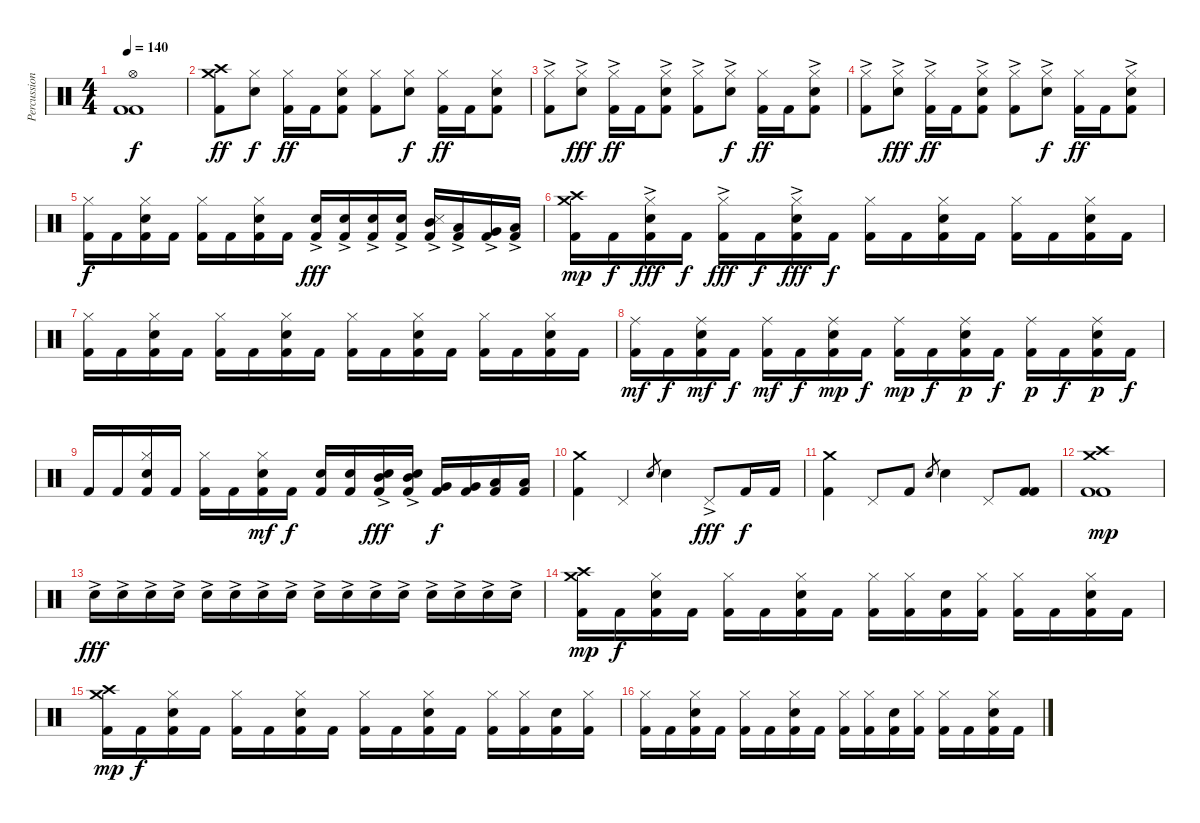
\track ("Percussion" "Percussion") {instrument percussion}
\staff {score}
\articulation defaults
\ts (4 4)
\tempo 140
\clef neutral
\ks c
("Hi-Hat (open)" "Kick (hit) 2" "Kick (hit) 2").1{dy f} |
("Crash medium (hit)" "Crash high (hit)" "Kick (hit) 2").8{dy ff} ("Hi-Hat (closed)" "Electric Snare (hit)").8{dy f} ("Hi-Hat (closed)" "Kick (hit) 2").16{dy ff} "Kick (hit) 2".16 ("Hi-Hat (closed)" "Electric Snare (hit)" "Kick (hit) 2").8 ("Hi-Hat (closed)" "Kick (hit) 2").8 ("Hi-Hat (closed)" "Electric Snare (hit)").8{dy f} ("Hi-Hat (closed)" "Kick (hit) 2").16{dy ff} "Kick (hit) 2".16 ("Hi-Hat (closed)" "Electric Snare (hit)" "Kick (hit) 2").8 |
("Hi-Hat (closed)"{ac} "Kick (hit) 2").8 ("Hi-Hat (closed)"{ac} "Electric Snare (hit)").8{dy fff} ("Hi-Hat (closed)"{ac} "Kick (hit) 2").16{dy ff} "Kick (hit) 2".16 ("Hi-Hat (closed)"{ac} "Electric Snare (hit)" "Kick (hit) 2").8 ("Hi-Hat (closed)"{ac} "Kick (hit) 2").8 ("Hi-Hat (closed)"{ac} "Electric Snare (hit)").8{dy f} ("Hi-Hat (closed)" "Kick (hit) 2").16{dy ff} "Kick (hit) 2".16 ("Hi-Hat (closed)"{ac} "Electric Snare (hit)" "Kick (hit) 2").8 |
("Hi-Hat (closed)"{ac} "Kick (hit) 2").8 ("Hi-Hat (closed)"{ac} "Electric Snare (hit)").8{dy fff} ("Hi-Hat (closed)"{ac} "Kick (hit) 2").16{dy ff} "Kick (hit) 2".16 ("Hi-Hat (closed)"{ac} "Electric Snare (hit)" "Kick (hit) 2").8 ("Hi-Hat (closed)"{ac} "Kick (hit) 2").8 ("Hi-Hat (closed)"{ac} "Electric Snare (hit)").8{dy f} ("Hi-Hat (closed)" "Kick (hit) 2").16{dy ff} "Kick (hit) 2".16 ("Hi-Hat (closed)"{ac} "Electric Snare (hit)" "Kick (hit) 2").8 |
("Hi-Hat (closed)" "Kick (hit) 2").16{dy f} "Kick (hit) 2".16 ("Hi-Hat (closed)" "Electric Snare (hit)" "Kick (hit) 2").16 "Kick (hit) 2".16 ("Hi-Hat (closed)" "Kick (hit) 2").16 "Kick (hit) 2".16 ("Hi-Hat (closed)" "Electric Snare (hit)" "Kick (hit) 2").16 "Kick (hit) 2".16 ("Electric Snare (hit)"{ac} "Kick (hit) 2").16{dy fff} ("Electric Snare (hit)"{ac} "Kick (hit) 2").16 ("Electric Snare (hit)"{ac} "Kick (hit) 2").16 ("Electric Snare (hit)"{ac} "Kick (hit) 2").16 ("Snare (side stick) 3" "Mid Tom (hit)"{ac} "Kick (hit) 2").16 ("Low Tom (hit)"{ac} "Kick (hit) 2").16 ("Very Low Tom (hit)"{ac} "Kick (hit) 2").16 ("Low Floor Tom (hit)"{ac} "Kick (hit) 2").16 |
("Crash medium (hit)" "Crash high (hit)" "Kick (hit) 2").16{dy mp} "Kick (hit) 2".16{dy f} ("Hi-Hat (closed)"{ac} "Electric Snare (hit)" "Kick (hit) 2").16{dy fff} "Kick (hit) 2".16{dy f} ("Hi-Hat (closed)"{ac} "Kick (hit) 2").16{dy fff} "Kick (hit) 2".16{dy f} ("Hi-Hat (closed)"{ac} "Electric Snare (hit)" "Kick (hit) 2").16{dy fff} "Kick (hit) 2".16{dy f} ("Hi-Hat (closed)" "Kick (hit) 2").16 "Kick (hit) 2".16 ("Hi-Hat (closed)" "Electric Snare (hit)" "Kick (hit) 2").16 "Kick (hit) 2".16 ("Hi-Hat (closed)" "Kick (hit) 2").16 "Kick (hit) 2".16 ("Hi-Hat (closed)" "Electric Snare (hit)" "Kick (hit) 2").16 "Kick (hit) 2".16 |
("Hi-Hat (closed)" "Kick (hit) 2").16 "Kick (hit) 2".16 ("Hi-Hat (closed)" "Electric Snare (hit)" "Kick (hit) 2").16 "Kick (hit) 2".16 ("Hi-Hat (closed)" "Kick (hit) 2").16 "Kick (hit) 2".16 ("Hi-Hat (closed)" "Electric Snare (hit)" "Kick (hit) 2").16 "Kick (hit) 2".16 ("Hi-Hat (closed)" "Kick (hit) 2").16 "Kick (hit) 2".16 ("Hi-Hat (closed)" "Electric Snare (hit)" "Kick (hit) 2").16 "Kick (hit) 2".16 ("Hi-Hat (closed)" "Kick (hit) 2").16 "Kick (hit) 2".16 ("Hi-Hat (closed)" "Electric Snare (hit)" "Kick (hit) 2").16 "Kick (hit) 2".16 |
("Ride (middle)" "Kick (hit) 2").16{dy mf} "Kick (hit) 2".16{dy f} ("Ride (middle)" "Electric Snare (hit)" "Kick (hit) 2").16{dy mf} "Kick (hit) 2".16{dy f} ("Ride (middle)" "Kick (hit) 2").16{dy mf} "Kick (hit) 2".16{dy f} ("Ride (middle)" "Electric Snare (hit)" "Kick (hit) 2").16{dy mp} "Kick (hit) 2".16{dy f} ("Ride (middle)" "Kick (hit) 2").16{dy mp} "Kick (hit) 2".16{dy f} ("Ride (middle)" "Electric Snare (hit)" "Kick (hit) 2").16{dy p} "Kick (hit) 2".16{dy f} ("Ride (middle)" "Kick (hit) 2").16{dy p} "Kick (hit) 2".16{dy f} ("Ride (middle)" "Electric Snare (hit)" "Kick (hit) 2").16{dy p} "Kick (hit) 2".16{dy f} |
"Kick (hit) 2".16 "Kick (hit) 2".16 ("Hi-Hat (closed)" "Electric Snare (hit)" "Kick (hit) 2").16 "Kick (hit) 2".16 ("Hi-Hat (closed)" "Kick (hit) 2").16 "Kick (hit) 2".16 ("Hi-Hat (closed)" "Electric Snare (hit)" "Kick (hit) 2").16{dy mf} "Kick (hit) 2".16{dy f} ("Electric Snare (hit)" "Kick (hit) 2").16 ("Electric Snare (hit)" "Kick (hit) 2").16 ("Mid Tom (hit)"{ac} "Electric Snare (hit)" "Kick (hit) 2").16{dy fff} ("Mid Tom (hit)"{ac} "Electric Snare (hit)" "Kick (hit) 2").16 ("Very Low Tom (hit)" "Kick (hit) 2").16{dy f} ("Very Low Tom (hit)" "Kick (hit) 2").16 ("Low Floor Tom (hit)" "Kick (hit) 2").16 ("Low Floor Tom (hit)" "Kick (hit) 2").16 |
("Crash medium (hit)" "Kick (hit) 2").4 "Pedal Hi-Hat (hit)".4 "Electric Snare (hit)".8{gr} "Electric Snare (hit)".4 "Pedal Hi-Hat (hit)"{ac}.8{dy fff} "Kick (hit) 2".16{dy f} "Kick (hit) 2".16 |
("Crash medium (hit)" "Kick (hit) 2").4 "Pedal Hi-Hat (hit)".8 "Kick (hit) 2".8 "Electric Snare (hit)".8{gr} "Electric Snare (hit)".4 "Pedal Hi-Hat (hit)".8 ("Kick (hit) 2" "Kick (hit) 2").8 |
("Crash high (hit)" "Crash medium (hit)" "Kick (hit) 2" "Kick (hit) 2").1{dy mp} |
"Electric Snare (hit)"{ac}.16{dy fff} "Electric Snare (hit)"{ac}.16 "Electric Snare (hit)"{ac}.16 "Electric Snare (hit)"{ac}.16 "Electric Snare (hit)"{ac}.16 "Electric Snare (hit)"{ac}.16 "Electric Snare (hit)"{ac}.16 "Electric Snare (hit)"{ac}.16 "Electric Snare (hit)"{ac}.16 "Electric Snare (hit)"{ac}.16 "Electric Snare (hit)"{ac}.16 "Electric Snare (hit)"{ac}.16 "Electric Snare (hit)"{ac}.16 "Electric Snare (hit)"{ac}.16 "Electric Snare (hit)"{ac}.16 "Electric Snare (hit)"{ac}.16 |
("Crash medium (hit)" "Crash high (hit)" "Kick (hit) 2").16{dy mp} "Kick (hit) 2".16{dy f} ("Hi-Hat (closed)" "Electric Snare (hit)" "Kick (hit) 2").16 "Kick (hit) 2".16 ("Hi-Hat (closed)" "Kick (hit) 2").16 "Kick (hit) 2".16 ("Hi-Hat (closed)" "Electric Snare (hit)" "Kick (hit) 2").16 "Kick (hit) 2".16 ("Hi-Hat (closed)" "Kick (hit) 2").16 ("Hi-Hat (closed)" "Kick (hit) 2").16 ("Electric Snare (hit)" "Kick (hit) 2").16 ("Hi-Hat (closed)" "Kick (hit) 2").16 ("Hi-Hat (closed)" "Kick (hit) 2").16 "Kick (hit) 2".16 ("Hi-Hat (closed)" "Electric Snare (hit)" "Kick (hit) 2").16 "Kick (hit) 2".16 |
("Crash high (hit)" "Crash medium (hit)" "Kick (hit) 2").16{dy mp} "Kick (hit) 2".16{dy f} ("Hi-Hat (closed)" "Electric Snare (hit)" "Kick (hit) 2").16 "Kick (hit) 2".16 ("Hi-Hat (closed)" "Kick (hit) 2").16 "Kick (hit) 2".16 ("Hi-Hat (closed)" "Electric Snare (hit)" "Kick (hit) 2").16 "Kick (hit) 2".16 ("Hi-Hat (closed)" "Kick (hit) 2").16 "Kick (hit) 2".16 ("Hi-Hat (closed)" "Electric Snare (hit)" "Kick (hit) 2").16 "Kick (hit) 2".16 ("Hi-Hat (closed)" "Kick (hit) 2").16 ("Hi-Hat (closed)" "Kick (hit) 2").16 ("Electric Snare (hit)" "Kick (hit) 2").16 ("Hi-Hat (closed)" "Kick (hit) 2").16 |
("Hi-Hat (closed)" "Kick (hit) 2").16 "Kick (hit) 2".16 ("Hi-Hat (closed)" "Electric Snare (hit)" "Kick (hit) 2").16 "Kick (hit) 2".16 ("Hi-Hat (closed)" "Kick (hit) 2").16 "Kick (hit) 2".16 ("Hi-Hat (closed)" "Electric Snare (hit)" "Kick (hit) 2").16 "Kick (hit) 2".16 ("Hi-Hat (closed)" "Kick (hit) 2").16 ("Hi-Hat (closed)" "Kick (hit) 2").16 ("Electric Snare (hit)" "Kick (hit) 2").16 ("Hi-Hat (closed)" "Kick (hit) 2").16 ("Hi-Hat (closed)" "Kick (hit) 2").16 "Kick (hit) 2".16 ("Hi-Hat (closed)" "Electric Snare (hit)" "Kick (hit) 2").16 "Kick (hit) 2".16
